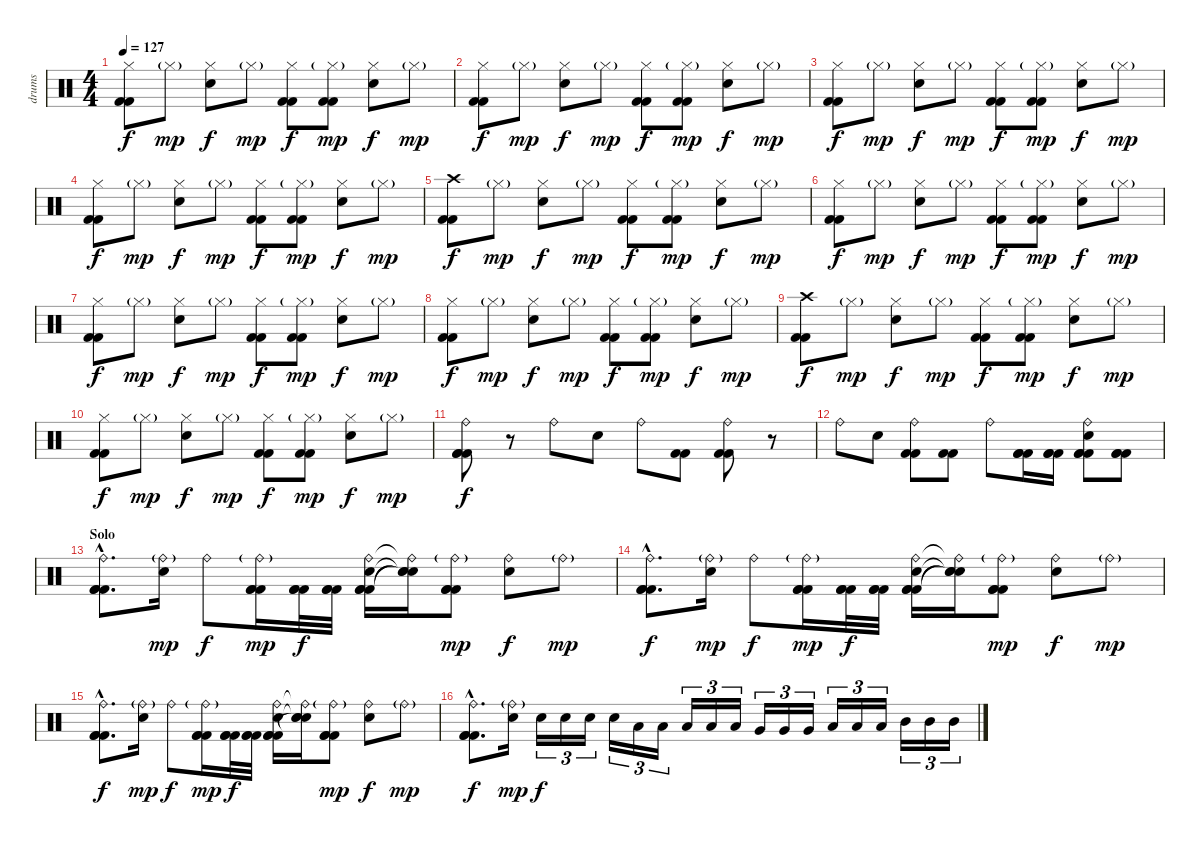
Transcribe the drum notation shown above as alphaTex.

\track ("drums" "drums") {instrument percussion}
\staff {score}
\articulation defaults
\ts (4 4)
\tempo 127
\clef neutral
\ks c
("Hi-Hat (closed)" "Kick (hit) 2" "Kick (hit) 2").8{dy f} "Hi-Hat (closed)"{g}.8{dy mp} ("Hi-Hat (closed)" "Electric Snare (hit)").8{dy f} "Hi-Hat (closed)"{g}.8{dy mp} ("Hi-Hat (closed)" "Kick (hit) 2" "Kick (hit) 2").8{dy f} ("Hi-Hat (closed)"{g} "Kick (hit) 2" "Kick (hit) 2").8{dy mp} ("Hi-Hat (closed)" "Electric Snare (hit)").8{dy f} "Hi-Hat (closed)"{g}.8{dy mp} |
("Hi-Hat (closed)" "Kick (hit) 2" "Kick (hit) 2").8{dy f} "Hi-Hat (closed)"{g}.8{dy mp} ("Hi-Hat (closed)" "Electric Snare (hit)").8{dy f} "Hi-Hat (closed)"{g}.8{dy mp} ("Hi-Hat (closed)" "Kick (hit) 2" "Kick (hit) 2").8{dy f} ("Hi-Hat (closed)"{g} "Kick (hit) 2" "Kick (hit) 2").8{dy mp} ("Hi-Hat (closed)" "Electric Snare (hit)").8{dy f} "Hi-Hat (closed)"{g}.8{dy mp} |
("Hi-Hat (closed)" "Kick (hit) 2" "Kick (hit) 2").8{dy f} "Hi-Hat (closed)"{g}.8{dy mp} ("Hi-Hat (closed)" "Electric Snare (hit)").8{dy f} "Hi-Hat (closed)"{g}.8{dy mp} ("Hi-Hat (closed)" "Kick (hit) 2" "Kick (hit) 2").8{dy f} ("Hi-Hat (closed)"{g} "Kick (hit) 2" "Kick (hit) 2").8{dy mp} ("Hi-Hat (closed)" "Electric Snare (hit)").8{dy f} "Hi-Hat (closed)"{g}.8{dy mp} |
("Hi-Hat (closed)" "Kick (hit) 2" "Kick (hit) 2").8{dy f} "Hi-Hat (closed)"{g}.8{dy mp} ("Hi-Hat (closed)" "Electric Snare (hit)").8{dy f} "Hi-Hat (closed)"{g}.8{dy mp} ("Hi-Hat (closed)" "Kick (hit) 2" "Kick (hit) 2").8{dy f} ("Hi-Hat (closed)"{g} "Kick (hit) 2" "Kick (hit) 2").8{dy mp} ("Hi-Hat (closed)" "Electric Snare (hit)").8{dy f} "Hi-Hat (closed)"{g}.8{dy mp} |
("Crash high (hit)" "Kick (hit) 2" "Kick (hit) 2").8{dy f} "Hi-Hat (closed)"{g}.8{dy mp} ("Hi-Hat (closed)" "Electric Snare (hit)").8{dy f} "Hi-Hat (closed)"{g}.8{dy mp} ("Hi-Hat (closed)" "Kick (hit) 2" "Kick (hit) 2").8{dy f} ("Hi-Hat (closed)"{g} "Kick (hit) 2" "Kick (hit) 2").8{dy mp} ("Hi-Hat (closed)" "Electric Snare (hit)").8{dy f} "Hi-Hat (closed)"{g}.8{dy mp} |
("Hi-Hat (closed)" "Kick (hit) 2" "Kick (hit) 2").8{dy f} "Hi-Hat (closed)"{g}.8{dy mp} ("Hi-Hat (closed)" "Electric Snare (hit)").8{dy f} "Hi-Hat (closed)"{g}.8{dy mp} ("Hi-Hat (closed)" "Kick (hit) 2" "Kick (hit) 2").8{dy f} ("Hi-Hat (closed)"{g} "Kick (hit) 2" "Kick (hit) 2").8{dy mp} ("Hi-Hat (closed)" "Electric Snare (hit)").8{dy f} "Hi-Hat (closed)"{g}.8{dy mp} |
("Hi-Hat (closed)" "Kick (hit) 2" "Kick (hit) 2").8{dy f} "Hi-Hat (closed)"{g}.8{dy mp} ("Hi-Hat (closed)" "Electric Snare (hit)").8{dy f} "Hi-Hat (closed)"{g}.8{dy mp} ("Hi-Hat (closed)" "Kick (hit) 2" "Kick (hit) 2").8{dy f} ("Hi-Hat (closed)"{g} "Kick (hit) 2" "Kick (hit) 2").8{dy mp} ("Hi-Hat (closed)" "Electric Snare (hit)").8{dy f} "Hi-Hat (closed)"{g}.8{dy mp} |
("Hi-Hat (closed)" "Kick (hit) 2" "Kick (hit) 2").8{dy f} "Hi-Hat (closed)"{g}.8{dy mp} ("Hi-Hat (closed)" "Electric Snare (hit)").8{dy f} "Hi-Hat (closed)"{g}.8{dy mp} ("Hi-Hat (closed)" "Kick (hit) 2" "Kick (hit) 2").8{dy f} ("Hi-Hat (closed)"{g} "Kick (hit) 2" "Kick (hit) 2").8{dy mp} ("Hi-Hat (closed)" "Electric Snare (hit)").8{dy f} "Hi-Hat (closed)"{g}.8{dy mp} |
("Crash high (hit)" "Kick (hit) 2" "Kick (hit) 2").8{dy f} "Hi-Hat (closed)"{g}.8{dy mp} ("Hi-Hat (closed)" "Electric Snare (hit)").8{dy f} "Hi-Hat (closed)"{g}.8{dy mp} ("Hi-Hat (closed)" "Kick (hit) 2" "Kick (hit) 2").8{dy f} ("Hi-Hat (closed)"{g} "Kick (hit) 2" "Kick (hit) 2").8{dy mp} ("Hi-Hat (closed)" "Electric Snare (hit)").8{dy f} "Hi-Hat (closed)"{g}.8{dy mp} |
("Hi-Hat (closed)" "Kick (hit) 2" "Kick (hit) 2").8{dy f} "Hi-Hat (closed)"{g}.8{dy mp} ("Hi-Hat (closed)" "Electric Snare (hit)").8{dy f} "Hi-Hat (closed)"{g}.8{dy mp} ("Hi-Hat (closed)" "Kick (hit) 2" "Kick (hit) 2").8{dy f} ("Hi-Hat (closed)"{g} "Kick (hit) 2" "Kick (hit) 2").8{dy mp} ("Hi-Hat (closed)" "Electric Snare (hit)").8{dy f} "Hi-Hat (closed)"{g}.8{dy mp} |
("Ride (bell)" "Kick (hit) 2" "Kick (hit) 2" "Kick (hit) 2").8{dy f} r.8 "Ride (bell)".8 "Electric Snare (hit)".8 "Ride (bell)".8 ("Kick (hit) 2" "Kick (hit) 2").8 ("Ride (bell)" "Kick (hit) 2" "Kick (hit) 2").8 r.8 |
"Ride (bell)".8 "Electric Snare (hit)".8 ("Ride (bell)" "Kick (hit) 2" "Kick (hit) 2").8 ("Kick (hit) 2" "Kick (hit) 2").8 "Ride (bell)".8 ("Kick (hit) 2" "Kick (hit) 2" "Kick (hit) 2").16 ("Kick (hit) 2" "Kick (hit) 2" "Kick (hit) 2").16 ("Ride (bell)" "Electric Snare (hit)" "Kick (hit) 2" "Kick (hit) 2" "Kick (hit) 2").8 ("Kick (hit) 2" "Kick (hit) 2" "Kick (hit) 2").8 |
\section ("" "Solo")
("Ride (bell)"{hac} "Kick (hit) 2"{hac} "Kick (hit) 2"{hac} "Kick (hit) 2"{hac}).8{d} ("Ride (bell)"{g} "Electric Snare (hit)").16{dy mp} "Ride (bell)".8{dy f} ("Ride (bell)"{g} "Kick (hit) 2" "Kick (hit) 2" "Kick (hit) 2").16{dy mp} ("Kick (hit) 2" "Kick (hit) 2" "Kick (hit) 2").32{dy f} ("Kick (hit) 2" "Kick (hit) 2" "Kick (hit) 2").32 ("Ride (bell)" "Electric Snare (hit)" "Kick (hit) 2" "Kick (hit) 2" "Kick (hit) 2").16 ("Ride (bell)"{t} "Electric Snare (hit)"{t} "Snare (hit)"{t} "Snare (hit)"{t}).16 ("Ride (bell)"{g} "Kick (hit) 2" "Kick (hit) 2" "Kick (hit) 2").8{dy mp} ("Ride (bell)" "Electric Snare (hit)").8{dy f} "Ride (bell)"{g}.8{dy mp} |
("Ride (bell)"{hac} "Kick (hit) 2"{hac} "Kick (hit) 2"{hac} "Kick (hit) 2"{hac}).8{d dy f} ("Ride (bell)"{g} "Electric Snare (hit)").16{dy mp} "Ride (bell)".8{dy f} ("Ride (bell)"{g} "Kick (hit) 2" "Kick (hit) 2" "Kick (hit) 2").16{dy mp} ("Kick (hit) 2" "Kick (hit) 2" "Kick (hit) 2").32{dy f} ("Kick (hit) 2" "Kick (hit) 2" "Kick (hit) 2").32 ("Ride (bell)" "Electric Snare (hit)" "Kick (hit) 2" "Kick (hit) 2" "Kick (hit) 2").16 ("Ride (bell)"{t} "Electric Snare (hit)"{t} "Snare (hit)"{t} "Snare (hit)"{t}).16 ("Ride (bell)"{g} "Kick (hit) 2" "Kick (hit) 2" "Kick (hit) 2").8{dy mp} ("Ride (bell)" "Electric Snare (hit)").8{dy f} "Ride (bell)"{g}.8{dy mp} |
("Ride (bell)"{hac} "Kick (hit) 2"{hac} "Kick (hit) 2"{hac} "Kick (hit) 2"{hac}).8{d dy f} ("Ride (bell)"{g} "Electric Snare (hit)").16{dy mp} "Ride (bell)".8{dy f} ("Ride (bell)"{g} "Kick (hit) 2" "Kick (hit) 2" "Kick (hit) 2").16{dy mp} ("Kick (hit) 2" "Kick (hit) 2" "Kick (hit) 2").32{dy f} ("Kick (hit) 2" "Kick (hit) 2" "Kick (hit) 2").32 ("Ride (bell)" "Electric Snare (hit)" "Kick (hit) 2" "Kick (hit) 2" "Kick (hit) 2").16 ("Ride (bell)"{t} "Electric Snare (hit)"{t} "Snare (hit)"{t} "Snare (hit)"{t}).16 ("Ride (bell)"{g} "Kick (hit) 2" "Kick (hit) 2" "Kick (hit) 2").8{dy mp} ("Ride (bell)" "Electric Snare (hit)").8{dy f} "Ride (bell)"{g}.8{dy mp} |
("Ride (bell)"{hac} "Kick (hit) 2"{hac} "Kick (hit) 2"{hac} "Kick (hit) 2"{hac}).8{d dy f} ("Ride (bell)"{g} "Electric Snare (hit)").16{dy mp} "Electric Snare (hit)".16{tu (3 2) dy f} "Electric Snare (hit)".16{tu (3 2)} "Electric Snare (hit)".16{tu (3 2)} "Electric Snare (hit)".16{tu (3 2)} "Low Floor Tom (hit)".16{tu (3 2)} "Low Floor Tom (hit)".16{tu (3 2)} "Low Floor Tom (hit)".16{tu (3 2)} "Low Floor Tom (hit)".16{tu (3 2)} "Low Floor Tom (hit)".16{tu (3 2)} "Very Low Tom (hit)".16{tu (3 2)} "Very Low Tom (hit)".16{tu (3 2)} "Very Low Tom (hit)".16{tu (3 2)} "Low Tom (hit)".16{tu (3 2)} "Low Tom (hit)".16{tu (3 2)} "Low Tom (hit)".16{tu (3 2)} "Mid Tom (hit)".16{tu (3 2)} "Mid Tom (hit)".16{tu (3 2)} "Mid Tom (hit)".16{tu (3 2)}
